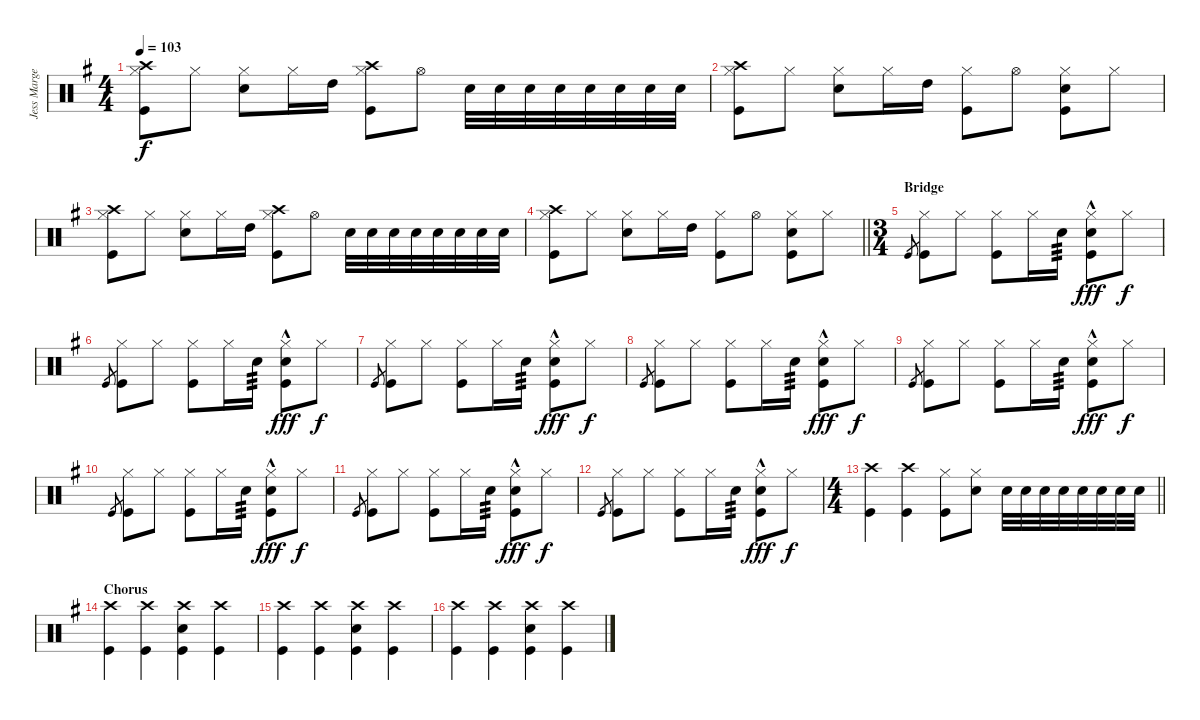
\track ("Jess Margera" "Jess Marge") {instrument percussion}
\staff {score}
\articulation defaults
\ts (4 4)
\tempo 103
\clef neutral
\ks g
("Crash high (hit)" "Hi-Hat (closed)" "Kick (hit)").8{dy f} "Hi-Hat (closed)".8 ("Hi-Hat (closed)" "Snare (hit) 2").8 "Hi-Hat (closed)".16 "High Tom (hit)".16 ("Crash high (hit)" "Hi-Hat (closed)" "Kick (hit)").8 "Hi-Hat (open)".8 "Snare (hit) 2".32 "Snare (hit) 2".32 "Snare (hit) 2".32 "Snare (hit) 2".32 "Snare (hit) 2".32 "Snare (hit) 2".32 "Snare (hit) 2".32 "Snare (hit) 2".32 |
("Crash high (hit)" "Hi-Hat (closed)" "Kick (hit)").8 "Hi-Hat (closed)".8 ("Hi-Hat (closed)" "Snare (hit) 2").8 "Hi-Hat (closed)".16 "High Tom (hit)".16 ("Hi-Hat (closed)" "Kick (hit)").8 "Hi-Hat (open)".8 ("Hi-Hat (closed)" "Snare (hit) 2" "Kick (hit)").8 "Hi-Hat (closed)".8 |
("Crash high (hit)" "Hi-Hat (closed)" "Kick (hit)").8 "Hi-Hat (closed)".8 ("Hi-Hat (closed)" "Snare (hit) 2").8 "Hi-Hat (closed)".16 "High Tom (hit)".16 ("Crash high (hit)" "Hi-Hat (closed)" "Kick (hit)").8 "Hi-Hat (open)".8 "Snare (hit) 2".32 "Snare (hit) 2".32 "Snare (hit) 2".32 "Snare (hit) 2".32 "Snare (hit) 2".32 "Snare (hit) 2".32 "Snare (hit) 2".32 "Snare (hit) 2".32 |
\barLineRight lightlight
("Crash high (hit)" "Hi-Hat (closed)" "Kick (hit)").8 "Hi-Hat (closed)".8 ("Hi-Hat (closed)" "Snare (hit) 2").8 "Hi-Hat (closed)".16 "High Tom (hit)".16 ("Hi-Hat (closed)" "Kick (hit)").8 "Hi-Hat (open)".8 ("Hi-Hat (closed)" "Snare (hit) 2" "Kick (hit)").8 "Hi-Hat (closed)".8 |
\ts (3 4)
\section ("" "Bridge")
"Kick (hit)".8{gr} ("Hi-Hat (closed)" "Kick (hit)").8 "Hi-Hat (closed)".8 ("Hi-Hat (closed)" "Kick (hit)").8 "Hi-Hat (closed)".16 "Snare (hit) 2".16{tp 3} ("Hi-Hat (closed)"{hac} "Snare (hit) 2"{hac} "Kick (hit)"{hac}).8{dy fff} "Hi-Hat (closed)".8{dy f} |
"Kick (hit)".8{gr} ("Hi-Hat (closed)" "Kick (hit)").8 "Hi-Hat (closed)".8 ("Hi-Hat (closed)" "Kick (hit)").8 "Hi-Hat (closed)".16 "Snare (hit) 2".16{tp 3} ("Hi-Hat (closed)"{hac} "Snare (hit) 2"{hac} "Kick (hit)"{hac}).8{dy fff} "Hi-Hat (closed)".8{dy f} |
"Kick (hit)".8{gr} ("Hi-Hat (closed)" "Kick (hit)").8 "Hi-Hat (closed)".8 ("Hi-Hat (closed)" "Kick (hit)").8 "Hi-Hat (closed)".16 "Snare (hit) 2".16{tp 3} ("Hi-Hat (closed)"{hac} "Snare (hit) 2"{hac} "Kick (hit)"{hac}).8{dy fff} "Hi-Hat (closed)".8{dy f} |
"Kick (hit)".8{gr} ("Hi-Hat (closed)" "Kick (hit)").8 "Hi-Hat (closed)".8 ("Hi-Hat (closed)" "Kick (hit)").8 "Hi-Hat (closed)".16 "Snare (hit) 2".16{tp 3} ("Hi-Hat (closed)"{hac} "Snare (hit) 2"{hac} "Kick (hit)"{hac}).8{dy fff} "Hi-Hat (closed)".8{dy f} |
"Kick (hit)".8{gr} ("Hi-Hat (closed)" "Kick (hit)").8 "Hi-Hat (closed)".8 ("Hi-Hat (closed)" "Kick (hit)").8 "Hi-Hat (closed)".16 "Snare (hit) 2".16{tp 3} ("Hi-Hat (closed)"{hac} "Snare (hit) 2"{hac} "Kick (hit)"{hac}).8{dy fff} "Hi-Hat (closed)".8{dy f} |
"Kick (hit)".8{gr} ("Hi-Hat (closed)" "Kick (hit)").8 "Hi-Hat (closed)".8 ("Hi-Hat (closed)" "Kick (hit)").8 "Hi-Hat (closed)".16 "Snare (hit) 2".16{tp 3} ("Hi-Hat (closed)"{hac} "Snare (hit) 2"{hac} "Kick (hit)"{hac}).8{dy fff} "Hi-Hat (closed)".8{dy f} |
"Kick (hit)".8{gr} ("Hi-Hat (closed)" "Kick (hit)").8 "Hi-Hat (closed)".8 ("Hi-Hat (closed)" "Kick (hit)").8 "Hi-Hat (closed)".16 "Snare (hit) 2".16{tp 3} ("Hi-Hat (closed)"{hac} "Snare (hit) 2"{hac} "Kick (hit)"{hac}).8{dy fff} "Hi-Hat (closed)".8{dy f} |
"Kick (hit)".8{gr} ("Hi-Hat (closed)" "Kick (hit)").8 "Hi-Hat (closed)".8 ("Hi-Hat (closed)" "Kick (hit)").8 "Hi-Hat (closed)".16 "Snare (hit) 2".16{tp 3} ("Hi-Hat (closed)"{hac} "Snare (hit) 2"{hac} "Kick (hit)"{hac}).8{dy fff} "Hi-Hat (closed)".8{dy f} |
\ts (4 4)
\barLineRight lightlight
("Crash high (hit)" "Kick (hit)").4 ("Crash high (hit)" "Kick (hit)").4 ("Hi-Hat (closed)" "Kick (hit)").8 ("Hi-Hat (closed)" "Snare (hit) 2").8 "Snare (hit) 2".32 "Snare (hit) 2".32 "Snare (hit) 2".32 "Snare (hit) 2".32 "Snare (hit) 2".32 "Snare (hit) 2".32 "Snare (hit) 2".32 "Snare (hit) 2".32 |
\section ("" "Chorus")
("Crash high (hit)" "Kick (hit)").4 ("Crash high (hit)" "Kick (hit)").4 ("Crash high (hit)" "Snare (hit) 2" "Kick (hit)").4 ("Crash high (hit)" "Kick (hit)").4 |
("Crash high (hit)" "Kick (hit)").4 ("Crash high (hit)" "Kick (hit)").4 ("Crash high (hit)" "Snare (hit) 2" "Kick (hit)").4 ("Crash high (hit)" "Kick (hit)").4 |
("Crash high (hit)" "Kick (hit)").4 ("Crash high (hit)" "Kick (hit)").4 ("Crash high (hit)" "Snare (hit) 2" "Kick (hit)").4 ("Crash high (hit)" "Kick (hit)").4
